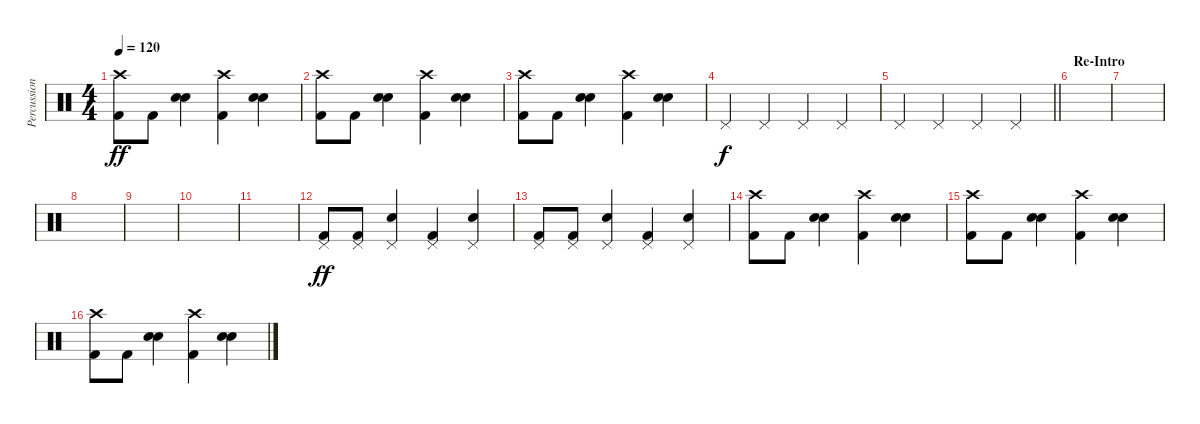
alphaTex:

\track ("Percussion" "Percussion") {instrument percussion}
\staff {score}
\articulation defaults
\ts (4 4)
\tempo 120
\clef neutral
\ks c
("Kick (hit) 2" "Crash high (hit)").8{dy ff} "Kick (hit) 2".8 ("Snare (hit) 2" "Snare (hit) 2").4 ("Kick (hit) 2" "Crash high (hit)").4 ("Snare (hit) 2" "Snare (hit) 2").4 |
("Kick (hit) 2" "Crash high (hit)").8 "Kick (hit) 2".8 ("Snare (hit) 2" "Snare (hit) 2").4 ("Kick (hit) 2" "Crash high (hit)").4 ("Snare (hit) 2" "Snare (hit) 2").4 |
("Kick (hit) 2" "Crash high (hit)").8 "Kick (hit) 2".8 ("Snare (hit) 2" "Snare (hit) 2").4 ("Kick (hit) 2" "Crash high (hit)").4 ("Snare (hit) 2" "Snare (hit) 2").4 |
"Pedal Hi-Hat (hit)".4{dy f} "Pedal Hi-Hat (hit)".4 "Pedal Hi-Hat (hit)".4 "Pedal Hi-Hat (hit)".4 |
\barLineRight lightlight "Pedal Hi-Hat (hit)".4 "Pedal Hi-Hat (hit)".4 "Pedal Hi-Hat (hit)".4 "Pedal Hi-Hat (hit)".4
|
\section ("" "Re-Intro")
|
|
|
|
|
|
("Kick (hit) 2" "Pedal Hi-Hat (hit)").8{dy ff} ("Kick (hit) 2" "Pedal Hi-Hat (hit)").8 ("Snare (hit) 2" "Pedal Hi-Hat (hit)").4 ("Kick (hit) 2" "Pedal Hi-Hat (hit)").4 ("Snare (hit) 2" "Pedal Hi-Hat (hit)").4 |
("Kick (hit) 2" "Pedal Hi-Hat (hit)").8 ("Kick (hit) 2" "Pedal Hi-Hat (hit)").8 ("Snare (hit) 2" "Pedal Hi-Hat (hit)").4 ("Kick (hit) 2" "Pedal Hi-Hat (hit)").4 ("Snare (hit) 2" "Pedal Hi-Hat (hit)").4 |
("Kick (hit) 2" "Crash high (hit)").8 "Kick (hit) 2".8 ("Snare (hit) 2" "Snare (hit) 2").4 ("Kick (hit) 2" "Crash high (hit)").4 ("Snare (hit) 2" "Snare (hit) 2").4 |
("Kick (hit) 2" "Crash high (hit)").8 "Kick (hit) 2".8 ("Snare (hit) 2" "Snare (hit) 2").4 ("Kick (hit) 2" "Crash high (hit)").4 ("Snare (hit) 2" "Snare (hit) 2").4 |
("Kick (hit) 2" "Crash high (hit)").8 "Kick (hit) 2".8 ("Snare (hit) 2" "Snare (hit) 2").4 ("Kick (hit) 2" "Crash high (hit)").4 ("Snare (hit) 2" "Snare (hit) 2").4
